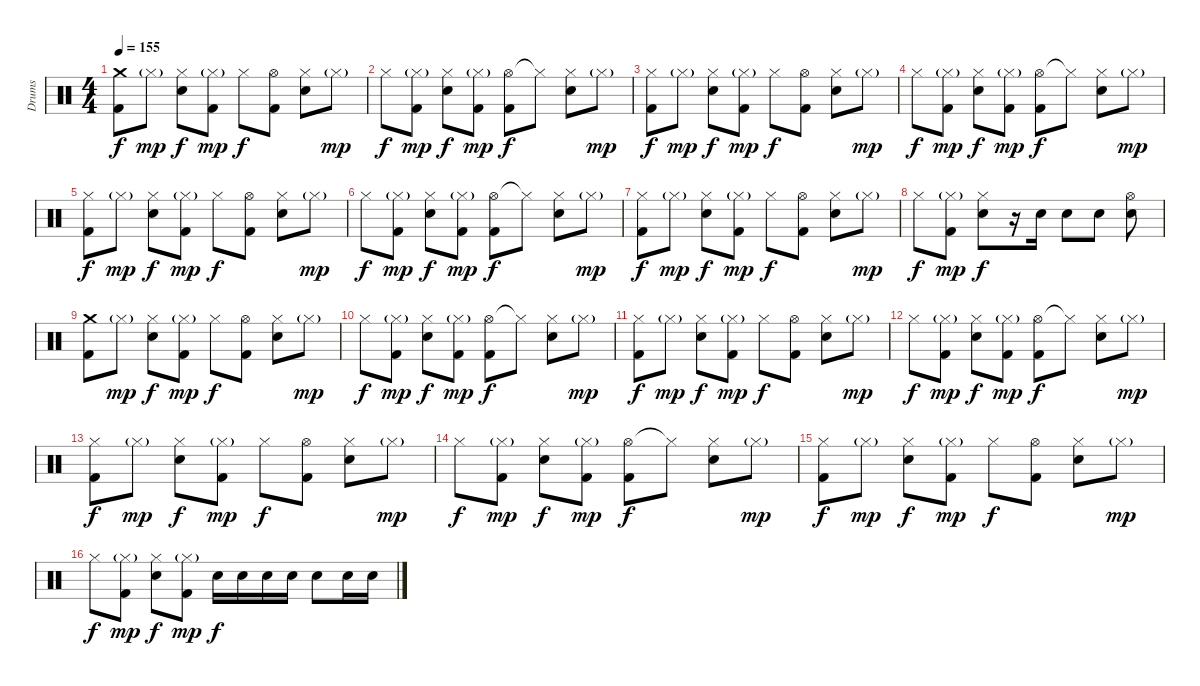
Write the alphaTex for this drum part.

\track ("Drums" "Drums") {instrument percussion}
\staff {score}
\articulation defaults
\ts (4 4)
\tempo 155
\clef neutral
\ks c
("Crash medium (hit)" "Kick (hit) 2").8{dy f} "Hi-Hat (closed)"{g}.8{dy mp} ("Hi-Hat (closed)" "Electric Snare (hit)").8{dy f} ("Hi-Hat (closed)"{g} "Kick (hit) 2").8{dy mp} "Hi-Hat (closed)".8{dy f} ("Hi-Hat (open)" "Kick (hit) 2").8 ("Hi-Hat (closed)" "Electric Snare (hit)").8 "Hi-Hat (closed)"{g}.8{dy mp} |
"Hi-Hat (closed)".8{dy f} ("Hi-Hat (closed)"{g} "Kick (hit) 2").8{dy mp} ("Hi-Hat (closed)" "Electric Snare (hit)").8{dy f} ("Hi-Hat (closed)"{g} "Kick (hit) 2").8{dy mp} ("Hi-Hat (open)" "Kick (hit) 2").8{dy f} "Hi-Hat (closed)"{t}.8 ("Hi-Hat (closed)" "Electric Snare (hit)").8 "Hi-Hat (closed)"{g}.8{dy mp} |
("Hi-Hat (closed)" "Kick (hit) 2").8{dy f} "Hi-Hat (closed)"{g}.8{dy mp} ("Hi-Hat (closed)" "Electric Snare (hit)").8{dy f} ("Hi-Hat (closed)"{g} "Kick (hit) 2").8{dy mp} "Hi-Hat (closed)".8{dy f} ("Hi-Hat (open)" "Kick (hit) 2").8 ("Hi-Hat (closed)" "Electric Snare (hit)").8 "Hi-Hat (closed)"{g}.8{dy mp} |
"Hi-Hat (closed)".8{dy f} ("Hi-Hat (closed)"{g} "Kick (hit) 2").8{dy mp} ("Hi-Hat (closed)" "Electric Snare (hit)").8{dy f} ("Hi-Hat (closed)"{g} "Kick (hit) 2").8{dy mp} ("Hi-Hat (open)" "Kick (hit) 2").8{dy f} "Hi-Hat (closed)"{t}.8 ("Hi-Hat (closed)" "Electric Snare (hit)").8 "Hi-Hat (closed)"{g}.8{dy mp} |
("Hi-Hat (closed)" "Kick (hit) 2").8{dy f} "Hi-Hat (closed)"{g}.8{dy mp} ("Hi-Hat (closed)" "Electric Snare (hit)").8{dy f} ("Hi-Hat (closed)"{g} "Kick (hit) 2").8{dy mp} "Hi-Hat (closed)".8{dy f} ("Hi-Hat (open)" "Kick (hit) 2").8 ("Hi-Hat (closed)" "Electric Snare (hit)").8 "Hi-Hat (closed)"{g}.8{dy mp} |
"Hi-Hat (closed)".8{dy f} ("Hi-Hat (closed)"{g} "Kick (hit) 2").8{dy mp} ("Hi-Hat (closed)" "Electric Snare (hit)").8{dy f} ("Hi-Hat (closed)"{g} "Kick (hit) 2").8{dy mp} ("Hi-Hat (open)" "Kick (hit) 2").8{dy f} "Hi-Hat (closed)"{t}.8 ("Hi-Hat (closed)" "Electric Snare (hit)").8 "Hi-Hat (closed)"{g}.8{dy mp} |
("Hi-Hat (closed)" "Kick (hit) 2").8{dy f} "Hi-Hat (closed)"{g}.8{dy mp} ("Hi-Hat (closed)" "Electric Snare (hit)").8{dy f} ("Hi-Hat (closed)"{g} "Kick (hit) 2").8{dy mp} "Hi-Hat (closed)".8{dy f} ("Hi-Hat (open)" "Kick (hit) 2").8 ("Hi-Hat (closed)" "Electric Snare (hit)").8 "Hi-Hat (closed)"{g}.8{dy mp} |
"Hi-Hat (closed)".8{dy f} ("Hi-Hat (closed)"{g} "Kick (hit) 2").8{dy mp} ("Hi-Hat (closed)" "Electric Snare (hit)").8{dy f} r.16 "Electric Snare (hit)".16 "Electric Snare (hit)".8 "Electric Snare (hit)".8 ("Electric Snare (hit)" "Hi-Hat (open)").8 |
("Crash medium (hit)" "Kick (hit) 2").8 "Hi-Hat (closed)"{g}.8{dy mp} ("Hi-Hat (closed)" "Electric Snare (hit)").8{dy f} ("Hi-Hat (closed)"{g} "Kick (hit) 2").8{dy mp} "Hi-Hat (closed)".8{dy f} ("Hi-Hat (open)" "Kick (hit) 2").8 ("Hi-Hat (closed)" "Electric Snare (hit)").8 "Hi-Hat (closed)"{g}.8{dy mp} |
"Hi-Hat (closed)".8{dy f} ("Hi-Hat (closed)"{g} "Kick (hit) 2").8{dy mp} ("Hi-Hat (closed)" "Electric Snare (hit)").8{dy f} ("Hi-Hat (closed)"{g} "Kick (hit) 2").8{dy mp} ("Hi-Hat (open)" "Kick (hit) 2").8{dy f} "Hi-Hat (closed)"{t}.8 ("Hi-Hat (closed)" "Electric Snare (hit)").8 "Hi-Hat (closed)"{g}.8{dy mp} |
("Hi-Hat (closed)" "Kick (hit) 2").8{dy f} "Hi-Hat (closed)"{g}.8{dy mp} ("Hi-Hat (closed)" "Electric Snare (hit)").8{dy f} ("Hi-Hat (closed)"{g} "Kick (hit) 2").8{dy mp} "Hi-Hat (closed)".8{dy f} ("Hi-Hat (open)" "Kick (hit) 2").8 ("Hi-Hat (closed)" "Electric Snare (hit)").8 "Hi-Hat (closed)"{g}.8{dy mp} |
"Hi-Hat (closed)".8{dy f} ("Hi-Hat (closed)"{g} "Kick (hit) 2").8{dy mp} ("Hi-Hat (closed)" "Electric Snare (hit)").8{dy f} ("Hi-Hat (closed)"{g} "Kick (hit) 2").8{dy mp} ("Hi-Hat (open)" "Kick (hit) 2").8{dy f} "Hi-Hat (closed)"{t}.8 ("Hi-Hat (closed)" "Electric Snare (hit)").8 "Hi-Hat (closed)"{g}.8{dy mp} |
("Hi-Hat (closed)" "Kick (hit) 2").8{dy f} "Hi-Hat (closed)"{g}.8{dy mp} ("Hi-Hat (closed)" "Electric Snare (hit)").8{dy f} ("Hi-Hat (closed)"{g} "Kick (hit) 2").8{dy mp} "Hi-Hat (closed)".8{dy f} ("Hi-Hat (open)" "Kick (hit) 2").8 ("Hi-Hat (closed)" "Electric Snare (hit)").8 "Hi-Hat (closed)"{g}.8{dy mp} |
"Hi-Hat (closed)".8{dy f} ("Hi-Hat (closed)"{g} "Kick (hit) 2").8{dy mp} ("Hi-Hat (closed)" "Electric Snare (hit)").8{dy f} ("Hi-Hat (closed)"{g} "Kick (hit) 2").8{dy mp} ("Hi-Hat (open)" "Kick (hit) 2").8{dy f} "Hi-Hat (closed)"{t}.8 ("Hi-Hat (closed)" "Electric Snare (hit)").8 "Hi-Hat (closed)"{g}.8{dy mp} |
("Hi-Hat (closed)" "Kick (hit) 2").8{dy f} "Hi-Hat (closed)"{g}.8{dy mp} ("Hi-Hat (closed)" "Electric Snare (hit)").8{dy f} ("Hi-Hat (closed)"{g} "Kick (hit) 2").8{dy mp} "Hi-Hat (closed)".8{dy f} ("Hi-Hat (open)" "Kick (hit) 2").8 ("Hi-Hat (closed)" "Electric Snare (hit)").8 "Hi-Hat (closed)"{g}.8{dy mp} |
"Hi-Hat (closed)".8{dy f} ("Hi-Hat (closed)"{g} "Kick (hit) 2").8{dy mp} ("Hi-Hat (closed)" "Electric Snare (hit)").8{dy f} ("Hi-Hat (closed)"{g} "Kick (hit) 2").8{dy mp} "Electric Snare (hit)".16{dy f} "Electric Snare (hit)".16 "Electric Snare (hit)".16 "Electric Snare (hit)".16 "Electric Snare (hit)".8 "Electric Snare (hit)".16 "Electric Snare (hit)".16
